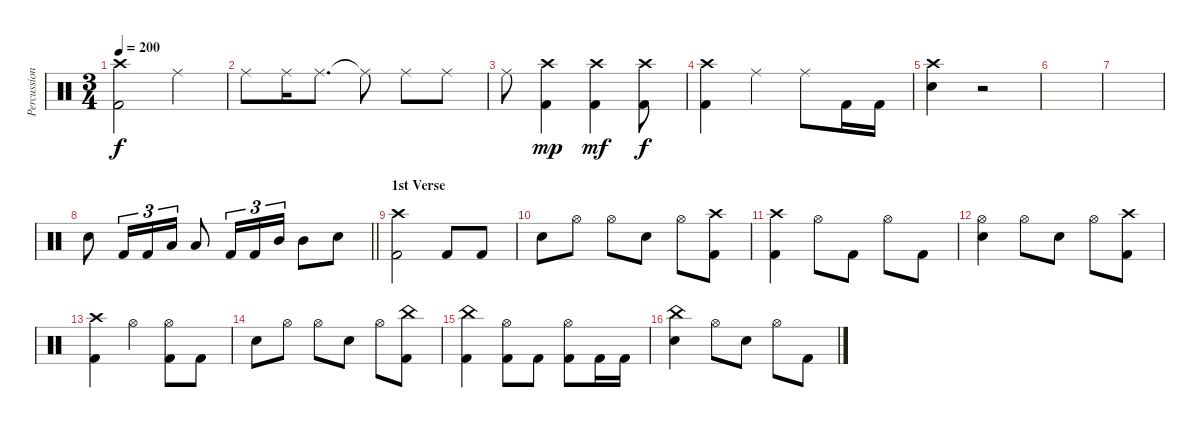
\track ("Percussion" "Percussion") {instrument percussion}
\staff {score}
\articulation defaults
\ts (3 4)
\tempo 200
\clef neutral
\ks c
("Crash high (hit)" "Kick (hit) 2").2{dy f} "Ride (middle)".4 |
"Ride (middle)".8 "Ride (middle)".16 "Ride (middle)".8{d} "Ride (middle)"{t}.8 "Ride (middle)".8 "Ride (middle)".8 |
"Ride (middle)".8 ("Crash high (hit)" "Kick (hit) 2").4{dy mp} ("Crash high (hit)" "Kick (hit) 2").4{dy mf} ("Crash high (hit)" "Kick (hit) 2").8{dy f} |
("Crash high (hit)" "Kick (hit) 2").4 "Ride (middle)".4 "Ride (middle)".8 "Kick (hit) 2".16 "Kick (hit) 2".16 |
("Crash high (hit)" "Electric Snare (hit)").4 r.2 |
|
|
\barLineRight lightlight "Electric Snare (hit)".8 "Kick (hit) 2".16{tu (3 2)} "Kick (hit) 2".16{tu (3 2)} "Low Tom (hit)".16{tu (3 2)} "Low Tom (hit)".8 "Kick (hit) 2".16{tu (3 2)} "Kick (hit) 2".16{tu (3 2)} "Mid Tom (hit)".16{tu (3 2)} "Mid Tom (hit)".8 "Electric Snare (hit)".8
|
\section ("" "1st Verse")
("Crash high (hit)" "Kick (hit) 2").2 "Kick (hit) 2".8 "Kick (hit) 2".8 |
"Electric Snare (hit)".8 "Hi-Hat (open)".8 "Hi-Hat (open)".8 "Electric Snare (hit)".8 "Hi-Hat (open)".8 ("Crash high (hit)" "Kick (hit) 2").8 |
("Crash high (hit)" "Kick (hit) 2").4 "Hi-Hat (open)".8 "Kick (hit) 2".8 "Hi-Hat (open)".8 "Kick (hit) 2".8 |
("Hi-Hat (open)" "Electric Snare (hit)").4 "Hi-Hat (open)".8 "Electric Snare (hit)".8 "Hi-Hat (open)".8 ("Crash high (hit)" "Kick (hit) 2").8 |
("Crash high (hit)" "Kick (hit) 2").4 "Hi-Hat (open)".4 ("Kick (hit) 2" "Hi-Hat (open)").8 "Kick (hit) 2".8 |
"Electric Snare (hit)".8 "Hi-Hat (open)".8 "Hi-Hat (open)".8 "Electric Snare (hit)".8 "Hi-Hat (open)".8 ("China (hit)" "Kick (hit) 2").8 |
("China (hit)" "Kick (hit) 2").4 ("Hi-Hat (open)" "Kick (hit) 2").8 "Kick (hit) 2".8 ("Hi-Hat (open)" "Kick (hit) 2").8 "Kick (hit) 2".16 "Kick (hit) 2".16 |
("China (hit)" "Electric Snare (hit)").4 "Hi-Hat (open)".8 "Electric Snare (hit)".8 "Hi-Hat (open)".8 "Kick (hit) 2".8
